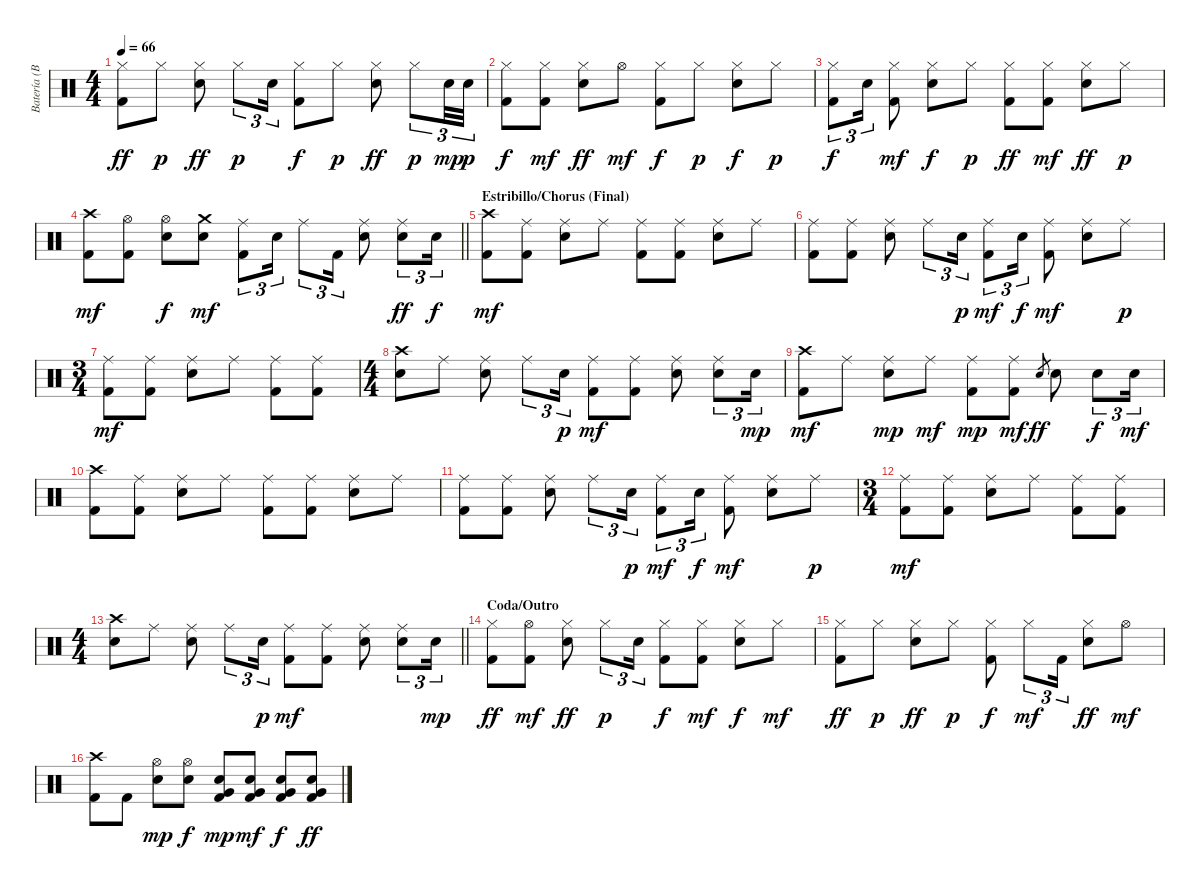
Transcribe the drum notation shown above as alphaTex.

\track ("Batería (Brit Turner)" "Batería (B") {instrument percussion}
\staff {score}
\articulation defaults
\ts (4 4)
\tempo 66
\clef neutral
\ks c
("Hi-Hat (closed)" "Kick (hit) 2").8{dy ff} "Hi-Hat (closed)".8{dy p} ("Hi-Hat (closed)" "Snare (hit) 2").8{dy ff} "Hi-Hat (closed)".8{tu (3 2) dy p} "Snare (hit) 2".16{tu (3 2)} ("Hi-Hat (closed)" "Kick (hit) 2").8{dy f} "Hi-Hat (closed)".8{dy p} ("Hi-Hat (closed)" "Snare (hit) 2").8{dy ff} "Hi-Hat (closed)".8{tu (3 2) dy p} "Snare (hit) 2".32{tu (3 2) dy mp} "Snare (hit) 2".32{tu (3 2) dy p} |
("Hi-Hat (closed)" "Kick (hit) 2").8{dy f} ("Hi-Hat (closed)" "Kick (hit) 2").8{dy mf} ("Hi-Hat (closed)" "Snare (hit) 2").8{dy ff} "Hi-Hat (open)".8{dy mf} ("Hi-Hat (closed)" "Kick (hit) 2").8{dy f} "Hi-Hat (closed)".8{dy p} ("Hi-Hat (closed)" "Snare (hit) 2").8{dy f} "Hi-Hat (closed)".8{dy p} |
("Hi-Hat (closed)" "Kick (hit) 2").8{tu (3 2) dy f} "Snare (hit) 2".16{tu (3 2)} ("Hi-Hat (closed)" "Kick (hit) 2").8{dy mf} ("Hi-Hat (closed)" "Snare (hit) 2").8{dy f} "Hi-Hat (closed)".8{dy p} ("Hi-Hat (closed)" "Kick (hit) 2").8{dy ff} ("Hi-Hat (closed)" "Kick (hit) 2").8{dy mf} ("Hi-Hat (closed)" "Snare (hit) 2").8{dy ff} "Hi-Hat (closed)".8{dy p} |
\barLineRight lightlight
("Crash high (hit)" "Kick (hit) 2").8{dy mf} ("Hi-Hat (open)" "Kick (hit) 2").8 ("Hi-Hat (open)" "Snare (hit) 2").8{dy f} ("Crash medium (hit)" "Snare (hit) 2").8{dy mf} ("Ride (middle)" "Kick (hit) 2").8{tu (3 2)} "Snare (hit) 2".16{tu (3 2)} "Ride (middle)".8{tu (3 2)} "Kick (hit) 2".16{tu (3 2)} ("Ride (middle)" "Snare (hit) 2").8 ("Ride (middle)" "Snare (hit) 2").8{tu (3 2) dy ff} "Snare (hit) 2".16{tu (3 2) dy f} |
\section ("" "Estribillo/Chorus (Final)")
("Crash high (hit)" "Kick (hit) 2").8{dy mf} ("Ride (middle)" "Kick (hit) 2").8 ("Ride (middle)" "Snare (hit) 2").8 "Ride (middle)".8 ("Ride (middle)" "Kick (hit) 2").8 ("Ride (middle)" "Kick (hit) 2").8 ("Ride (middle)" "Snare (hit) 2").8 "Ride (middle)".8 |
("Ride (middle)" "Kick (hit) 2").8 ("Ride (middle)" "Kick (hit) 2").8 ("Ride (middle)" "Snare (hit) 2").8 "Ride (middle)".8{tu (3 2)} "Snare (hit) 2".16{tu (3 2) dy p} ("Ride (middle)" "Kick (hit) 2").8{tu (3 2) dy mf} "Snare (hit) 2".16{tu (3 2) dy f} ("Ride (middle)" "Kick (hit) 2").8{dy mf} ("Ride (middle)" "Snare (hit) 2").8 "Ride (middle)".8{dy p} |
\ts (3 4)
("Ride (middle)" "Kick (hit) 2").8{dy mf} ("Ride (middle)" "Kick (hit) 2").8 ("Ride (middle)" "Snare (hit) 2").8 "Ride (middle)".8 ("Ride (middle)" "Kick (hit) 2").8 ("Ride (middle)" "Kick (hit) 2").8 |
\ts (4 4)
("Crash high (hit)" "Snare (hit) 2").8 "Ride (middle)".8 ("Ride (middle)" "Snare (hit) 2").8 "Ride (middle)".8{tu (3 2)} "Snare (hit) 2".16{tu (3 2) dy p} ("Ride (middle)" "Kick (hit) 2").8{dy mf} ("Ride (middle)" "Kick (hit) 2").8 ("Ride (middle)" "Snare (hit) 2").8 ("Ride (middle)" "Snare (hit) 2").8{tu (3 2)} "Snare (hit) 2".16{tu (3 2) dy mp} |
("Crash high (hit)" "Kick (hit) 2").8{dy mf} "Ride (middle)".8 ("Ride (middle)" "Snare (hit) 2").8{dy mp} "Ride (middle)".8{dy mf} ("Ride (middle)" "Kick (hit) 2").8{dy mp} ("Ride (middle)" "Kick (hit) 2").8{dy mf} "Snare (hit) 2".8{gr dy ff} "Snare (hit) 2".8 "Snare (hit) 2".8{tu (3 2) dy f} "Snare (hit) 2".16{tu (3 2) dy mf} |
("Crash high (hit)" "Kick (hit) 2").8 ("Ride (middle)" "Kick (hit) 2").8 ("Ride (middle)" "Snare (hit) 2").8 "Ride (middle)".8 ("Ride (middle)" "Kick (hit) 2").8 ("Ride (middle)" "Kick (hit) 2").8 ("Ride (middle)" "Snare (hit) 2").8 "Ride (middle)".8 |
("Ride (middle)" "Kick (hit) 2").8 ("Ride (middle)" "Kick (hit) 2").8 ("Ride (middle)" "Snare (hit) 2").8 "Ride (middle)".8{tu (3 2)} "Snare (hit) 2".16{tu (3 2) dy p} ("Ride (middle)" "Kick (hit) 2").8{tu (3 2) dy mf} "Snare (hit) 2".16{tu (3 2) dy f} ("Ride (middle)" "Kick (hit) 2").8{dy mf} ("Ride (middle)" "Snare (hit) 2").8 "Ride (middle)".8{dy p} |
\ts (3 4)
("Ride (middle)" "Kick (hit) 2").8{dy mf} ("Ride (middle)" "Kick (hit) 2").8 ("Ride (middle)" "Snare (hit) 2").8 "Ride (middle)".8 ("Ride (middle)" "Kick (hit) 2").8 ("Ride (middle)" "Kick (hit) 2").8 |
\ts (4 4)
\barLineRight lightlight
("Crash high (hit)" "Snare (hit) 2").8 "Ride (middle)".8 ("Ride (middle)" "Snare (hit) 2").8 "Ride (middle)".8{tu (3 2)} "Snare (hit) 2".16{tu (3 2) dy p} ("Ride (middle)" "Kick (hit) 2").8{dy mf} ("Ride (middle)" "Kick (hit) 2").8 ("Ride (middle)" "Snare (hit) 2").8 ("Ride (middle)" "Snare (hit) 2").8{tu (3 2)} "Snare (hit) 2".16{tu (3 2) dy mp} |
\section ("" "Coda/Outro")
("Hi-Hat (closed)" "Kick (hit) 2").8{dy ff} ("Hi-Hat (open)" "Kick (hit) 2").8{dy mf} ("Hi-Hat (closed)" "Snare (hit) 2").8{dy ff} "Hi-Hat (closed)".8{tu (3 2) dy p} "Snare (hit) 2".16{tu (3 2)} ("Hi-Hat (closed)" "Kick (hit) 2").8{dy f} ("Hi-Hat (closed)" "Kick (hit) 2").8{dy mf} ("Hi-Hat (closed)" "Snare (hit) 2").8{dy f} "Hi-Hat (closed)".8{dy mf} |
("Hi-Hat (closed)" "Kick (hit) 2").8{dy ff} "Hi-Hat (closed)".8{dy p} ("Hi-Hat (closed)" "Snare (hit) 2").8{dy ff} "Hi-Hat (closed)".8{dy p} ("Hi-Hat (closed)" "Kick (hit) 2").8{dy f} "Hi-Hat (closed)".8{tu (3 2) dy mf} "Kick (hit) 2".16{tu (3 2)} ("Hi-Hat (closed)" "Snare (hit) 2").8{dy ff} "Hi-Hat (open)".8{dy mf} |
("Crash high (hit)" "Kick (hit) 2").8 "Kick (hit) 2".8 ("Hi-Hat (open)" "Snare (hit) 2").8{dy mp} ("Hi-Hat (open)" "Snare (hit) 2").8{dy f} ("Snare (hit) 2" "Very Low Tom (hit)" "Kick (hit) 2").8{dy mp} ("Snare (hit) 2" "Very Low Tom (hit)" "Kick (hit) 2").8{dy mf} ("Snare (hit) 2" "Very Low Tom (hit)" "Kick (hit) 2").8{dy f} ("Snare (hit) 2" "Very Low Tom (hit)" "Kick (hit) 2").8{dy ff}
